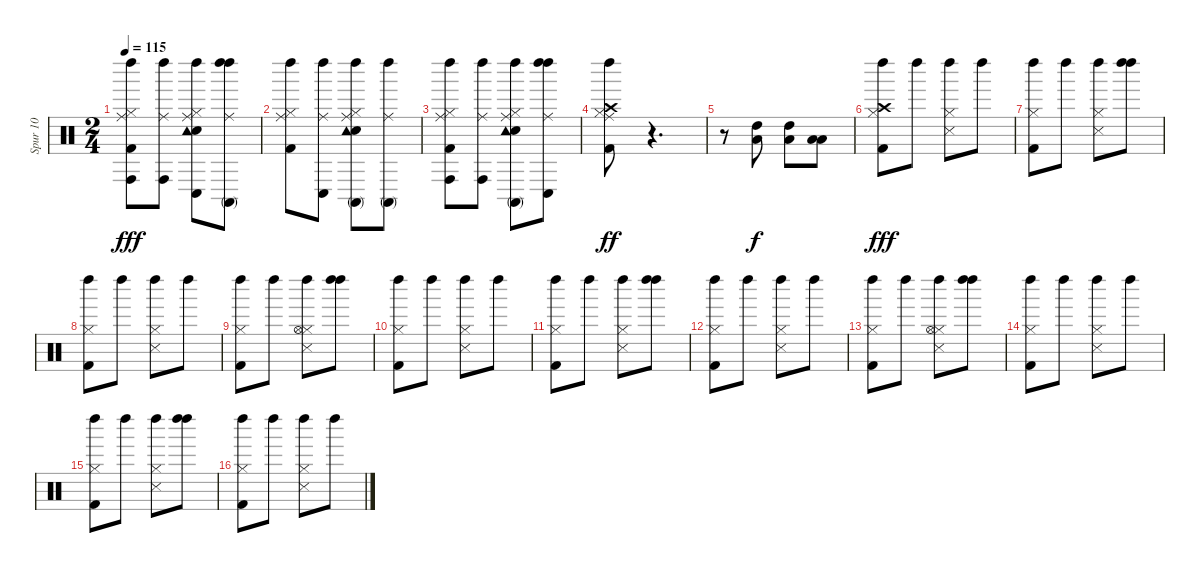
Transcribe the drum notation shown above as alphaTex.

\track ("Spur 10" "Spur 10") {instrument percussion}
\staff {score}
\articulation defaults
\ts (2 4)
\tempo 115
\clef neutral
\ks c
("Left Maraca (hit)" "Hi-Hat (closed)" "Kick (hit) 2" "Conga high (hit)" "Ride (middle)").8{dy fff} ("Left Maraca (hit)" "Conga high (hit)" "Ride (middle)").8 ("Left Maraca (hit)" "Hi-Hat (closed)" "Electric Snare (hit)" "Tambourine (hit)" "Conga low (hit)" "Ride (middle)").8 ("Left Maraca (hit)" "Ride (middle)" "Left Maraca (hit)" "Conga high (mute)").8 |
("Left Maraca (hit)" "Hi-Hat (closed)" "Kick (hit) 2" "Ride (middle)").8 ("Left Maraca (hit)" "Conga low (hit)" "Ride (middle)").8 ("Left Maraca (hit)" "Hi-Hat (closed)" "Electric Snare (hit)" "Tambourine (hit)" "Conga high (mute)" "Ride (middle)").8 ("Ride (middle)" "Left Maraca (hit)" "Conga high (mute)").8 |
("Left Maraca (hit)" "Hi-Hat (closed)" "Kick (hit) 2" "Conga high (hit)" "Ride (middle)").8 ("Left Maraca (hit)" "Conga high (hit)" "Ride (middle)").8 ("Left Maraca (hit)" "Hi-Hat (closed)" "Electric Snare (hit)" "Tambourine (hit)" "Conga high (mute)" "Ride (middle)").8 ("Left Maraca (hit)" "Ride (middle)" "Left Maraca (hit)" "Conga low (hit)").8 |
("Left Maraca (hit)" "Hi-Hat (closed)" "Kick (hit) 2" "Ride (middle)" "Crash high (hit)").8{dy ff} r.4{d} |
r.8 ("High Tom (hit)" "Low Tom (hit)").8{dy f} ("Low Tom (hit)" "High Tom (hit)").8 ("Low Tom (hit)" "Low Floor Tom (hit)").8 |
("Left Maraca (hit)" "Crash high (hit)" "Hi-Hat (closed)" "Kick (hit) 2").8{dy fff} "Left Maraca (hit)".8 ("Hi-Hat (closed)" "Snare (side stick) 3" "Left Maraca (hit)").8 "Left Maraca (hit)".8 |
("Kick (hit) 2" "Hi-Hat (closed)" "Left Maraca (hit)").8 "Left Maraca (hit)".8 ("Hi-Hat (closed)" "Snare (side stick) 3" "Left Maraca (hit)").8 ("Left Maraca (hit)" "Left Maraca (hit)").8 |
("Kick (hit) 2" "Hi-Hat (closed)" "Left Maraca (hit)").8 "Left Maraca (hit)".8 ("Snare (side stick) 3" "Hi-Hat (closed)" "Left Maraca (hit)").8 "Left Maraca (hit)".8 |
("Kick (hit) 2" "Hi-Hat (closed)" "Left Maraca (hit)").8 "Left Maraca (hit)".8 ("Snare (side stick) 3" "Hi-Hat (closed)" "Hi-Hat (open)" "Left Maraca (hit)").8 ("Left Maraca (hit)" "Left Maraca (hit)").8 |
("Hi-Hat (closed)" "Kick (hit) 2" "Left Maraca (hit)").8 "Left Maraca (hit)".8 ("Hi-Hat (closed)" "Snare (side stick) 3" "Left Maraca (hit)").8 "Left Maraca (hit)".8 |
("Kick (hit) 2" "Hi-Hat (closed)" "Left Maraca (hit)").8 "Left Maraca (hit)".8 ("Hi-Hat (closed)" "Snare (side stick) 3" "Left Maraca (hit)").8 ("Left Maraca (hit)" "Left Maraca (hit)").8 |
("Kick (hit) 2" "Hi-Hat (closed)" "Left Maraca (hit)").8 "Left Maraca (hit)".8 ("Snare (side stick) 3" "Hi-Hat (closed)" "Left Maraca (hit)").8 "Left Maraca (hit)".8 |
("Kick (hit) 2" "Hi-Hat (closed)" "Left Maraca (hit)").8 "Left Maraca (hit)".8 ("Snare (side stick) 3" "Hi-Hat (closed)" "Hi-Hat (open)" "Left Maraca (hit)").8 ("Left Maraca (hit)" "Left Maraca (hit)").8 |
("Hi-Hat (closed)" "Kick (hit) 2" "Left Maraca (hit)").8 "Left Maraca (hit)".8 ("Left Maraca (hit)" "Hi-Hat (closed)" "Snare (side stick) 3").8 "Left Maraca (hit)".8 |
("Kick (hit) 2" "Hi-Hat (closed)" "Left Maraca (hit)").8 "Left Maraca (hit)".8 ("Hi-Hat (closed)" "Snare (side stick) 3" "Left Maraca (hit)").8 ("Left Maraca (hit)" "Left Maraca (hit)").8 |
("Kick (hit) 2" "Hi-Hat (closed)" "Left Maraca (hit)").8 "Left Maraca (hit)".8 ("Snare (side stick) 3" "Hi-Hat (closed)" "Left Maraca (hit)").8 "Left Maraca (hit)".8
